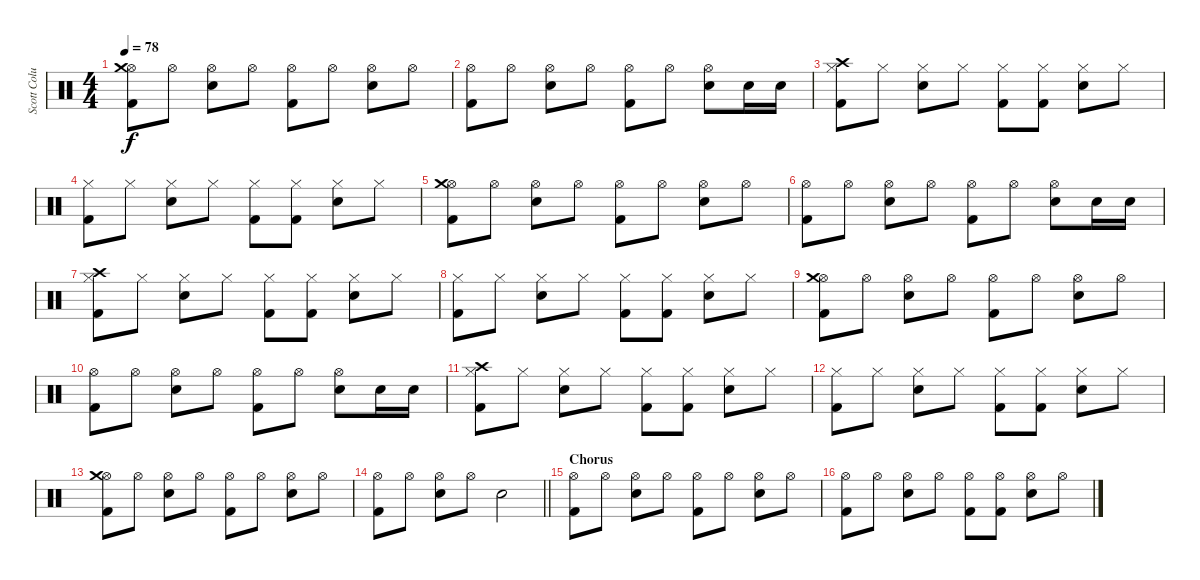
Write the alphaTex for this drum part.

\track ("Scott Columbus" "Scott Colu") {instrument percussion}
\staff {score}
\articulation defaults
\ts (4 4)
\tempo 78
\clef neutral
\ks c
("Kick (hit) 2" "Hi-Hat (open)" "Crash medium (hit)").8{dy f} "Hi-Hat (open)".8 ("Electric Snare (hit)" "Hi-Hat (open)").8 "Hi-Hat (open)".8 ("Kick (hit) 2" "Hi-Hat (open)").8 "Hi-Hat (open)".8 ("Electric Snare (hit)" "Hi-Hat (open)").8 "Hi-Hat (open)".8 |
("Kick (hit) 2" "Hi-Hat (open)").8 "Hi-Hat (open)".8 ("Electric Snare (hit)" "Hi-Hat (open)").8 "Hi-Hat (open)".8 ("Kick (hit) 2" "Hi-Hat (open)").8 "Hi-Hat (open)".8 ("Electric Snare (hit)" "Hi-Hat (open)").8 "Electric Snare (hit)".16 "Electric Snare (hit)".16 |
("Kick (hit) 2" "Hi-Hat (closed)" "Crash high (hit)").8 "Hi-Hat (closed)".8 ("Electric Snare (hit)" "Hi-Hat (closed)").8 "Hi-Hat (closed)".8 ("Kick (hit) 2" "Hi-Hat (closed)").8 ("Kick (hit) 2" "Hi-Hat (closed)").8 ("Electric Snare (hit)" "Hi-Hat (closed)").8 "Hi-Hat (closed)".8 |
("Kick (hit) 2" "Hi-Hat (closed)").8 "Hi-Hat (closed)".8 ("Electric Snare (hit)" "Hi-Hat (closed)").8 "Hi-Hat (closed)".8 ("Kick (hit) 2" "Hi-Hat (closed)").8 ("Kick (hit) 2" "Hi-Hat (closed)").8 ("Electric Snare (hit)" "Hi-Hat (closed)").8 "Hi-Hat (closed)".8 |
("Kick (hit) 2" "Hi-Hat (open)" "Crash medium (hit)").8 "Hi-Hat (open)".8 ("Electric Snare (hit)" "Hi-Hat (open)").8 "Hi-Hat (open)".8 ("Kick (hit) 2" "Hi-Hat (open)").8 "Hi-Hat (open)".8 ("Electric Snare (hit)" "Hi-Hat (open)").8 "Hi-Hat (open)".8 |
("Kick (hit) 2" "Hi-Hat (open)").8 "Hi-Hat (open)".8 ("Electric Snare (hit)" "Hi-Hat (open)").8 "Hi-Hat (open)".8 ("Kick (hit) 2" "Hi-Hat (open)").8 "Hi-Hat (open)".8 ("Electric Snare (hit)" "Hi-Hat (open)").8 "Electric Snare (hit)".16 "Electric Snare (hit)".16 |
("Kick (hit) 2" "Hi-Hat (closed)" "Crash high (hit)").8 "Hi-Hat (closed)".8 ("Electric Snare (hit)" "Hi-Hat (closed)").8 "Hi-Hat (closed)".8 ("Kick (hit) 2" "Hi-Hat (closed)").8 ("Kick (hit) 2" "Hi-Hat (closed)").8 ("Electric Snare (hit)" "Hi-Hat (closed)").8 "Hi-Hat (closed)".8 |
("Kick (hit) 2" "Hi-Hat (closed)").8 "Hi-Hat (closed)".8 ("Electric Snare (hit)" "Hi-Hat (closed)").8 "Hi-Hat (closed)".8 ("Kick (hit) 2" "Hi-Hat (closed)").8 ("Kick (hit) 2" "Hi-Hat (closed)").8 ("Electric Snare (hit)" "Hi-Hat (closed)").8 "Hi-Hat (closed)".8 |
("Kick (hit) 2" "Hi-Hat (open)" "Crash medium (hit)").8 "Hi-Hat (open)".8 ("Electric Snare (hit)" "Hi-Hat (open)").8 "Hi-Hat (open)".8 ("Kick (hit) 2" "Hi-Hat (open)").8 "Hi-Hat (open)".8 ("Electric Snare (hit)" "Hi-Hat (open)").8 "Hi-Hat (open)".8 |
("Kick (hit) 2" "Hi-Hat (open)").8 "Hi-Hat (open)".8 ("Electric Snare (hit)" "Hi-Hat (open)").8 "Hi-Hat (open)".8 ("Kick (hit) 2" "Hi-Hat (open)").8 "Hi-Hat (open)".8 ("Electric Snare (hit)" "Hi-Hat (open)").8 "Electric Snare (hit)".16 "Electric Snare (hit)".16 |
("Kick (hit) 2" "Hi-Hat (closed)" "Crash high (hit)").8 "Hi-Hat (closed)".8 ("Electric Snare (hit)" "Hi-Hat (closed)").8 "Hi-Hat (closed)".8 ("Kick (hit) 2" "Hi-Hat (closed)").8 ("Kick (hit) 2" "Hi-Hat (closed)").8 ("Electric Snare (hit)" "Hi-Hat (closed)").8 "Hi-Hat (closed)".8 |
("Kick (hit) 2" "Hi-Hat (closed)").8 "Hi-Hat (closed)".8 ("Electric Snare (hit)" "Hi-Hat (closed)").8 "Hi-Hat (closed)".8 ("Kick (hit) 2" "Hi-Hat (closed)").8 ("Kick (hit) 2" "Hi-Hat (closed)").8 ("Electric Snare (hit)" "Hi-Hat (closed)").8 "Hi-Hat (closed)".8 |
("Kick (hit) 2" "Hi-Hat (open)" "Crash medium (hit)").8 "Hi-Hat (open)".8 ("Electric Snare (hit)" "Hi-Hat (open)").8 "Hi-Hat (open)".8 ("Kick (hit) 2" "Hi-Hat (open)").8 "Hi-Hat (open)".8 ("Electric Snare (hit)" "Hi-Hat (open)").8 "Hi-Hat (open)".8 |
\barLineRight lightlight
("Kick (hit) 2" "Hi-Hat (open)").8 "Hi-Hat (open)".8 ("Electric Snare (hit)" "Hi-Hat (open)").8 "Hi-Hat (open)".8 "Electric Snare (hit)".2 |
\section ("" "Chorus")
("Kick (hit) 2" "Hi-Hat (open)").8 "Hi-Hat (open)".8 ("Electric Snare (hit)" "Hi-Hat (open)").8 "Hi-Hat (open)".8 ("Kick (hit) 2" "Hi-Hat (open)").8 "Hi-Hat (open)".8 ("Electric Snare (hit)" "Hi-Hat (open)").8 "Hi-Hat (open)".8 |
("Kick (hit) 2" "Hi-Hat (open)").8 "Hi-Hat (open)".8 ("Electric Snare (hit)" "Hi-Hat (open)").8 "Hi-Hat (open)".8 ("Kick (hit) 2" "Hi-Hat (open)").8 ("Kick (hit) 2" "Hi-Hat (open)").8 ("Electric Snare (hit)" "Hi-Hat (open)").8 "Hi-Hat (open)".8
